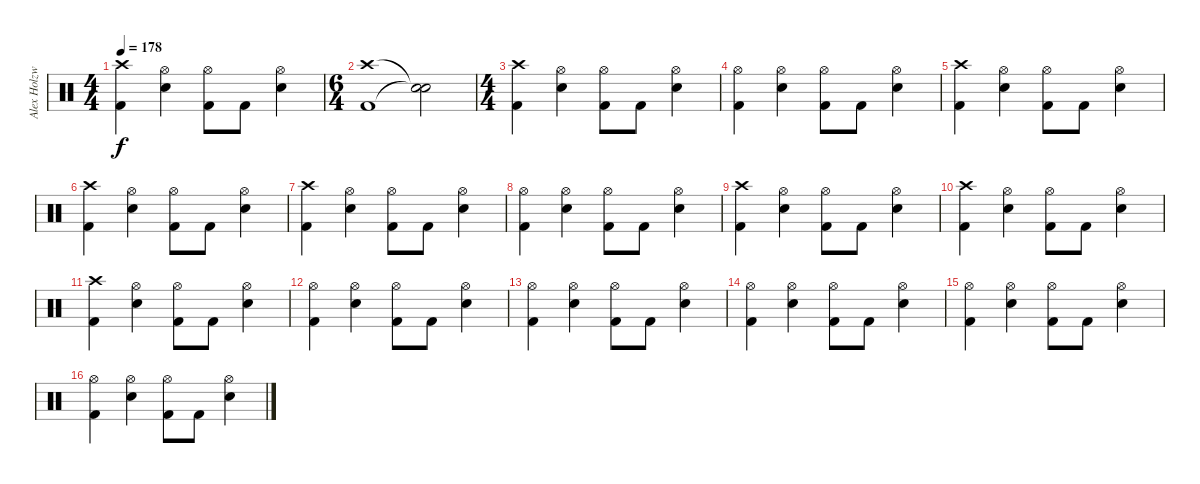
\track ("Alex Holzwarth" "Alex Holzw") {instrument percussion}
\staff {score}
\articulation defaults
\ts (4 4)
\tempo 178
\clef neutral
\ks c
("Crash high (hit)" "Kick (hit) 2").4{dy f} ("Hi-Hat (open)" "Electric Snare (hit)").4 ("Hi-Hat (open)" "Kick (hit) 2").8 "Kick (hit) 2".8 ("Hi-Hat (open)" "Electric Snare (hit)").4 |
\ts (6 4)
("Crash high (hit)" "Kick (hit) 2").1 ("Snare (hit)"{t} "Snare (hit)"{t}).2 |
\ts (4 4)
("Crash high (hit)" "Kick (hit) 2").4 ("Hi-Hat (open)" "Electric Snare (hit)").4 ("Hi-Hat (open)" "Kick (hit) 2").8 "Kick (hit) 2".8 ("Hi-Hat (open)" "Electric Snare (hit)").4 |
("Hi-Hat (open)" "Kick (hit) 2").4 ("Hi-Hat (open)" "Electric Snare (hit)").4 ("Hi-Hat (open)" "Kick (hit) 2").8 "Kick (hit) 2".8 ("Hi-Hat (open)" "Electric Snare (hit)").4 |
("Crash high (hit)" "Kick (hit) 2").4 ("Hi-Hat (open)" "Electric Snare (hit)").4 ("Hi-Hat (open)" "Kick (hit) 2").8 "Kick (hit) 2".8 ("Hi-Hat (open)" "Electric Snare (hit)").4 |
("Crash high (hit)" "Kick (hit) 2").4 ("Hi-Hat (open)" "Electric Snare (hit)").4 ("Hi-Hat (open)" "Kick (hit) 2").8 "Kick (hit) 2".8 ("Hi-Hat (open)" "Electric Snare (hit)").4 |
("Crash high (hit)" "Kick (hit) 2").4 ("Hi-Hat (open)" "Electric Snare (hit)").4 ("Hi-Hat (open)" "Kick (hit) 2").8 "Kick (hit) 2".8 ("Hi-Hat (open)" "Electric Snare (hit)").4 |
("Hi-Hat (open)" "Kick (hit) 2").4 ("Hi-Hat (open)" "Electric Snare (hit)").4 ("Hi-Hat (open)" "Kick (hit) 2").8 "Kick (hit) 2".8 ("Hi-Hat (open)" "Electric Snare (hit)").4 |
("Crash high (hit)" "Kick (hit) 2").4 ("Hi-Hat (open)" "Electric Snare (hit)").4 ("Hi-Hat (open)" "Kick (hit) 2").8 "Kick (hit) 2".8 ("Hi-Hat (open)" "Electric Snare (hit)").4 |
("Crash high (hit)" "Kick (hit) 2").4 ("Hi-Hat (open)" "Electric Snare (hit)").4 ("Hi-Hat (open)" "Kick (hit) 2").8 "Kick (hit) 2".8 ("Hi-Hat (open)" "Electric Snare (hit)").4 |
("Crash high (hit)" "Kick (hit) 2").4 ("Hi-Hat (open)" "Electric Snare (hit)").4 ("Hi-Hat (open)" "Kick (hit) 2").8 "Kick (hit) 2".8 ("Hi-Hat (open)" "Electric Snare (hit)").4 |
("Hi-Hat (open)" "Kick (hit) 2").4 ("Hi-Hat (open)" "Electric Snare (hit)").4 ("Hi-Hat (open)" "Kick (hit) 2").8 "Kick (hit) 2".8 ("Hi-Hat (open)" "Electric Snare (hit)").4 |
("Hi-Hat (open)" "Kick (hit) 2").4 ("Hi-Hat (open)" "Electric Snare (hit)").4 ("Hi-Hat (open)" "Kick (hit) 2").8 "Kick (hit) 2".8 ("Hi-Hat (open)" "Electric Snare (hit)").4 |
("Hi-Hat (open)" "Kick (hit) 2").4 ("Hi-Hat (open)" "Electric Snare (hit)").4 ("Hi-Hat (open)" "Kick (hit) 2").8 "Kick (hit) 2".8 ("Hi-Hat (open)" "Electric Snare (hit)").4 |
("Hi-Hat (open)" "Kick (hit) 2").4 ("Hi-Hat (open)" "Electric Snare (hit)").4 ("Hi-Hat (open)" "Kick (hit) 2").8 "Kick (hit) 2".8 ("Hi-Hat (open)" "Electric Snare (hit)").4 |
("Hi-Hat (open)" "Kick (hit) 2").4 ("Hi-Hat (open)" "Electric Snare (hit)").4 ("Hi-Hat (open)" "Kick (hit) 2").8 "Kick (hit) 2".8 ("Hi-Hat (open)" "Electric Snare (hit)").4
